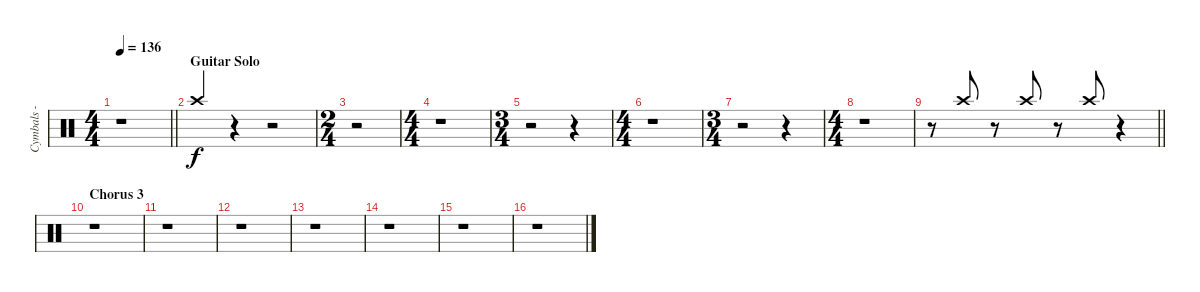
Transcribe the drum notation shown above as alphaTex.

\track ("Cymbals - crash - right" "Cymbals - ") {instrument percussion}
\staff {score}
\articulation defaults
\ts (4 4)
\tempo 136
\clef neutral
\barLineRight lightlight
\ks c
r.1{dy mp} |
\section ("" "Guitar Solo")
"Crash high (hit)".4{dy f beam Up} r.4 r.2 |
\ts (2 4)
r.2 |
\ts (4 4)
r.1 |
\ts (3 4)
r.2 r.4 |
\ts (4 4)
r.1 |
\ts (3 4)
r.2 r.4 |
\ts (4 4)
r.1 |
\barLineRight lightlight
r.8 "Crash high (hit)".8{beam Up} r.8 "Crash high (hit)".8{beam Up} r.8 "Crash high (hit)".8{beam Up} r.4 |
\section ("" "Chorus 3")
r.1 |
r.1 |
r.1 |
r.1 |
r.1 |
r.1 |
r.1
